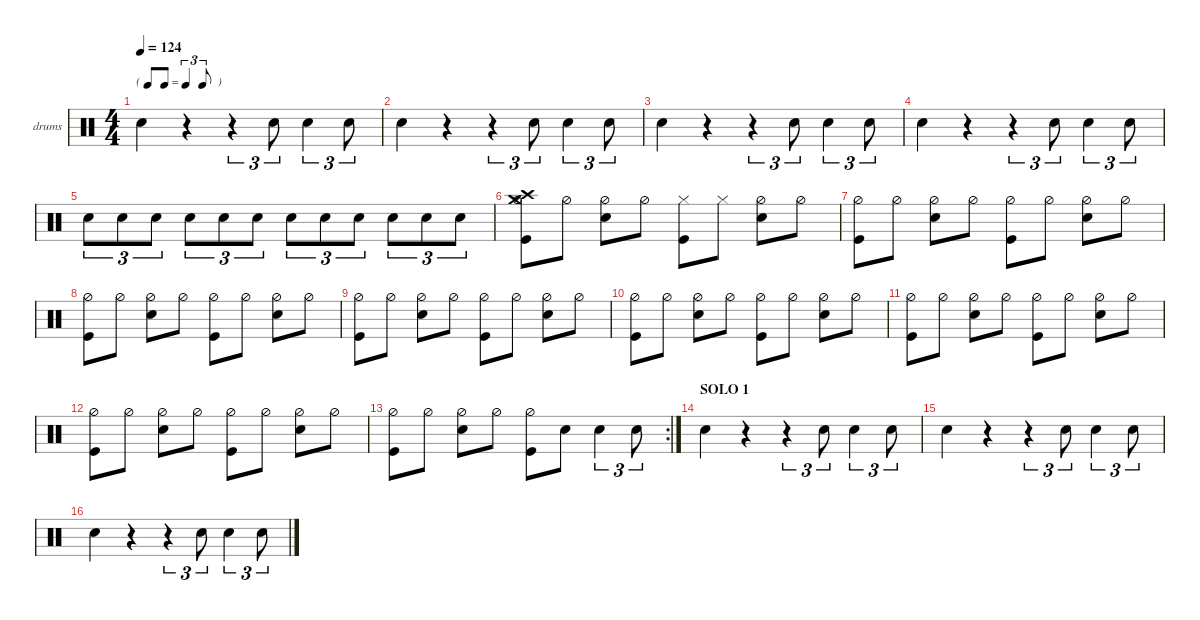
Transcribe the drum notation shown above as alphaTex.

\defaultSystemsLayout 4
\hideDynamics
\bracketExtendMode nobrackets
\firstSystemTrackNameOrientation horizontal
\otherSystemsTrackNameOrientation horizontal
\track ("drums" "drums") {instrument percussion}
\staff {score}
\articulation defaults
\ts (4 4)
\tf triplet8th
\tempo 124
\clef neutral
\scale
1.06392
\ks aminor "Snare (hit) 2".4{dy mf}
r.4 r.4{tu (3 2)} "Snare (hit) 2".8{tu (3 2)} "Snare (hit) 2".4{tu (3 2)} "Snare (hit) 2".8{tu (3 2)} |
\scale
0.978695 "Snare (hit) 2".4 r.4 r.4{tu (3 2)} "Snare (hit) 2".8{tu (3 2)} "Snare (hit) 2".4{tu (3 2)} "Snare (hit) 2".8{tu (3 2)} |
\scale
0.978695 "Snare (hit) 2".4 r.4 r.4{tu (3 2)} "Snare (hit) 2".8{tu (3 2)} "Snare (hit) 2".4{tu (3 2)} "Snare (hit) 2".8{tu (3 2)} |
\scale
0.978695 "Snare (hit) 2".4 r.4 r.4{tu (3 2)} "Snare (hit) 2".8{tu (3 2)} "Snare (hit) 2".4{tu (3 2)} "Snare (hit) 2".8{tu (3 2)} |
\scale
1.06392 "Snare (hit) 2".8{tu (3 2) dy pp} "Snare (hit) 2".8{tu (3 2)} "Snare (hit) 2".8{tu (3 2)} "Snare (hit) 2".8{tu (3 2) dy p} "Snare (hit) 2".8{tu (3 2)} "Snare (hit) 2".8{tu (3 2)} "Snare (hit) 2".8{tu (3 2) dy mp} "Snare (hit) 2".8{tu (3 2)} "Snare (hit) 2".8{tu (3 2)} "Snare (hit) 2".8{tu (3 2) dy mf} "Snare (hit) 2".8{tu (3 2)} "Snare (hit) 2".8{tu (3 2)} |
\scale
0.978695 ("Kick (hit)" "Hi-Hat (half)" "Crash medium (hit)" "Crash high (hit)").8 "Hi-Hat (half)".8 ("Hi-Hat (half)" "Snare (hit) 2").8 "Hi-Hat (half)".8 ("Kick (hit)" "Hi-Hat (closed)").8 "Hi-Hat (closed)".8 ("Hi-Hat (half)" "Snare (hit) 2").8 "Hi-Hat (half)".8 |
\scale
0.978695 ("Kick (hit)" "Hi-Hat (half)").8 "Hi-Hat (half)".8 ("Hi-Hat (half)" "Snare (hit) 2").8 "Hi-Hat (half)".8 ("Kick (hit)" "Hi-Hat (half)").8 "Hi-Hat (half)".8 ("Hi-Hat (half)" "Snare (hit) 2").8 "Hi-Hat (half)".8 |
\scale
0.978695 ("Kick (hit)" "Hi-Hat (half)").8 "Hi-Hat (half)".8 ("Hi-Hat (half)" "Snare (hit) 2").8 "Hi-Hat (half)".8 ("Kick (hit)" "Hi-Hat (half)").8 "Hi-Hat (half)".8 ("Hi-Hat (half)" "Snare (hit) 2").8 "Hi-Hat (half)".8 |
\scale
1.06392 ("Kick (hit)" "Hi-Hat (half)").8 "Hi-Hat (half)".8 ("Hi-Hat (half)" "Snare (hit) 2").8 "Hi-Hat (half)".8 ("Kick (hit)" "Hi-Hat (half)").8 "Hi-Hat (half)".8 ("Hi-Hat (half)" "Snare (hit) 2").8 "Hi-Hat (half)".8 |
\scale
0.978695 ("Kick (hit)" "Hi-Hat (half)").8 "Hi-Hat (half)".8 ("Hi-Hat (half)" "Snare (hit) 2").8 "Hi-Hat (half)".8 ("Kick (hit)" "Hi-Hat (half)").8 "Hi-Hat (half)".8 ("Hi-Hat (half)" "Snare (hit) 2").8 "Hi-Hat (half)".8 |
\scale
0.978695 ("Kick (hit)" "Hi-Hat (half)").8 "Hi-Hat (half)".8 ("Hi-Hat (half)" "Snare (hit) 2").8 "Hi-Hat (half)".8 ("Kick (hit)" "Hi-Hat (half)").8 "Hi-Hat (half)".8 ("Hi-Hat (half)" "Snare (hit) 2").8 "Hi-Hat (half)".8 |
\scale
0.978695 ("Kick (hit)" "Hi-Hat (half)").8 "Hi-Hat (half)".8 ("Hi-Hat (half)" "Snare (hit) 2").8 "Hi-Hat (half)".8 ("Kick (hit)" "Hi-Hat (half)").8 "Hi-Hat (half)".8 ("Hi-Hat (half)" "Snare (hit) 2").8 "Hi-Hat (half)".8 |
\rc 2
\scale
1.09859 ("Kick (hit)" "Hi-Hat (half)").8 "Hi-Hat (half)".8 ("Hi-Hat (half)" "Snare (hit) 2").8 "Hi-Hat (half)".8 ("Kick (hit)" "Hi-Hat (half)").8 "Snare (hit) 2".8 "Snare (hit) 2".4{tu (3 2)} "Snare (hit) 2".8{tu (3 2)} |
\section ("" "SOLO 1")
\scale
0.967137 "Snare (hit) 2".4 r.4 r.4{tu (3 2)} "Snare (hit) 2".8{tu (3 2)} "Snare (hit) 2".4{tu (3 2)} "Snare (hit) 2".8{tu (3 2)} |
\scale
0.967137 "Snare (hit) 2".4 r.4 r.4{tu (3 2)} "Snare (hit) 2".8{tu (3 2)} "Snare (hit) 2".4{tu (3 2)} "Snare (hit) 2".8{tu (3 2)} |
\scale
0.967137 "Snare (hit) 2".4 r.4 r.4{tu (3 2)} "Snare (hit) 2".8{tu (3 2)} "Snare (hit) 2".4{tu (3 2)} "Snare (hit) 2".8{tu (3 2)}
